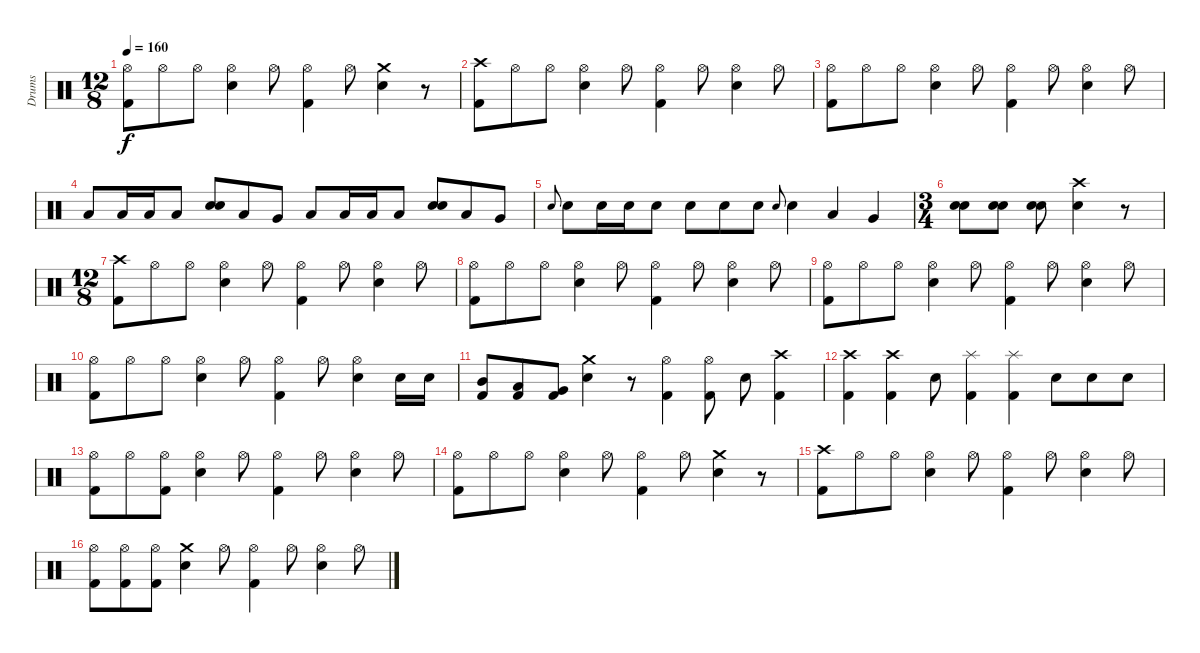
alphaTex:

\track ("Drums" "Drums") {instrument percussion}
\staff {score}
\articulation defaults
\ts (12 8)
\tempo 160
\clef neutral
\ks c
("Kick (hit) 2" "Hi-Hat (open)").8{dy f} "Hi-Hat (open)".8 "Hi-Hat (open)".8 ("Snare (hit) 2" "Hi-Hat (open)").4 "Hi-Hat (open)".8 ("Kick (hit) 2" "Hi-Hat (open)").4 "Hi-Hat (open)".8 ("Snare (hit) 2" "Crash medium (hit)").4 r.8 |
("Kick (hit) 2" "Crash high (hit)").8 "Hi-Hat (open)".8 "Hi-Hat (open)".8 ("Snare (hit) 2" "Hi-Hat (open)").4 "Hi-Hat (open)".8 ("Kick (hit) 2" "Hi-Hat (open)").4 "Hi-Hat (open)".8 ("Snare (hit) 2" "Hi-Hat (open)").4 "Hi-Hat (open)".8 |
("Kick (hit) 2" "Hi-Hat (open)").8 "Hi-Hat (open)".8 "Hi-Hat (open)".8 ("Snare (hit) 2" "Hi-Hat (open)").4 "Hi-Hat (open)".8 ("Kick (hit) 2" "Hi-Hat (open)").4 "Hi-Hat (open)".8 ("Snare (hit) 2" "Hi-Hat (open)").4 "Hi-Hat (open)".8 |
"Low Tom (hit)".8 "Low Tom (hit)".16 "Low Tom (hit)".16 "Low Tom (hit)".8 ("Snare (hit) 2" "Snare (hit) 2").8 "Low Tom (hit)".8 "Very Low Tom (hit)".8 "Low Tom (hit)".8 "Low Tom (hit)".16 "Low Tom (hit)".16 "Low Tom (hit)".8 ("Snare (hit) 2" "Snare (hit) 2").8 "Low Tom (hit)".8 "Very Low Tom (hit)".8 |
"Snare (hit) 2".8{gr onbeat} "Snare (hit) 2".8 "Snare (hit) 2".16 "Snare (hit) 2".16 "Snare (hit) 2".8 "Snare (hit) 2".8 "Snare (hit) 2".8 "Snare (hit) 2".8 "Snare (hit) 2".8{gr onbeat} "Snare (hit) 2".4 "Low Tom (hit)".4 "Very Low Tom (hit)".4 |
\ts (3 4)
("Snare (hit) 2" "Snare (hit) 2").8 ("Snare (hit) 2" "Snare (hit) 2").8 ("Snare (hit) 2" "Snare (hit) 2").8 ("Snare (hit) 2" "Crash high (hit)").4 r.8 |
\ts (12 8)
("Kick (hit) 2" "Crash high (hit)").8 "Hi-Hat (open)".8 "Hi-Hat (open)".8 ("Snare (hit) 2" "Hi-Hat (open)").4 "Hi-Hat (open)".8 ("Kick (hit) 2" "Hi-Hat (open)").4 "Hi-Hat (open)".8 ("Snare (hit) 2" "Hi-Hat (open)").4 "Hi-Hat (open)".8 |
("Kick (hit) 2" "Hi-Hat (open)").8 "Hi-Hat (open)".8 "Hi-Hat (open)".8 ("Snare (hit) 2" "Hi-Hat (open)").4 "Hi-Hat (open)".8 ("Kick (hit) 2" "Hi-Hat (open)").4 "Hi-Hat (open)".8 ("Snare (hit) 2" "Hi-Hat (open)").4 "Hi-Hat (open)".8 |
("Kick (hit) 2" "Hi-Hat (open)").8 "Hi-Hat (open)".8 "Hi-Hat (open)".8 ("Snare (hit) 2" "Hi-Hat (open)").4 "Hi-Hat (open)".8 ("Kick (hit) 2" "Hi-Hat (open)").4 "Hi-Hat (open)".8 ("Snare (hit) 2" "Hi-Hat (open)").4 "Hi-Hat (open)".8 |
("Kick (hit) 2" "Hi-Hat (open)").8 "Hi-Hat (open)".8 "Hi-Hat (open)".8 ("Snare (hit) 2" "Hi-Hat (open)").4 "Hi-Hat (open)".8 ("Kick (hit) 2" "Hi-Hat (open)").4 "Hi-Hat (open)".8 ("Snare (hit) 2" "Hi-Hat (open)").4 "Snare (hit) 2".16 "Snare (hit) 2".16 |
("Kick (hit) 2" "Mid Tom (hit)").8 ("Kick (hit) 2" "Low Tom (hit)").8 ("Kick (hit) 2" "Very Low Tom (hit)").8 ("Snare (hit) 2" "Crash medium (hit)").4 r.8 ("Kick (hit) 2" "Hi-Hat (open)").4 ("Kick (hit) 2" "Hi-Hat (open)").8 "Snare (hit) 2".8 ("Kick (hit) 2" "Crash high (hit)").4 |
("Kick (hit) 2" "Crash high (hit)").4 ("Kick (hit) 2" "Crash high (hit)").4 "Snare (hit) 2".8 ("Kick (hit) 2" "Splash (hit)").4 ("Kick (hit) 2" "Splash (hit)").4 "Snare (hit) 2".8 "Snare (hit) 2".8 "Snare (hit) 2".8 |
("Kick (hit) 2" "Hi-Hat (open)").8 "Hi-Hat (open)".8 ("Kick (hit) 2" "Hi-Hat (open)").8 ("Snare (hit) 2" "Hi-Hat (open)").4 "Hi-Hat (open)".8 ("Kick (hit) 2" "Hi-Hat (open)").4 "Hi-Hat (open)".8 ("Snare (hit) 2" "Hi-Hat (open)").4 "Hi-Hat (open)".8 |
("Kick (hit) 2" "Hi-Hat (open)").8 "Hi-Hat (open)".8 "Hi-Hat (open)".8 ("Snare (hit) 2" "Hi-Hat (open)").4 "Hi-Hat (open)".8 ("Kick (hit) 2" "Hi-Hat (open)").4 "Hi-Hat (open)".8 ("Snare (hit) 2" "Crash medium (hit)").4 r.8 |
("Kick (hit) 2" "Crash high (hit)").8 "Hi-Hat (open)".8 "Hi-Hat (open)".8 ("Snare (hit) 2" "Hi-Hat (open)").4 "Hi-Hat (open)".8 ("Kick (hit) 2" "Hi-Hat (open)").4 "Hi-Hat (open)".8 ("Snare (hit) 2" "Hi-Hat (open)").4 "Hi-Hat (open)".8 |
("Kick (hit) 2" "Hi-Hat (open)").8 ("Kick (hit) 2" "Hi-Hat (open)").8 ("Kick (hit) 2" "Hi-Hat (open)").8 ("Snare (hit) 2" "Crash medium (hit)").4 "Hi-Hat (open)".8 ("Kick (hit) 2" "Hi-Hat (open)").4 "Hi-Hat (open)".8 ("Snare (hit) 2" "Hi-Hat (open)").4 "Hi-Hat (open)".8
